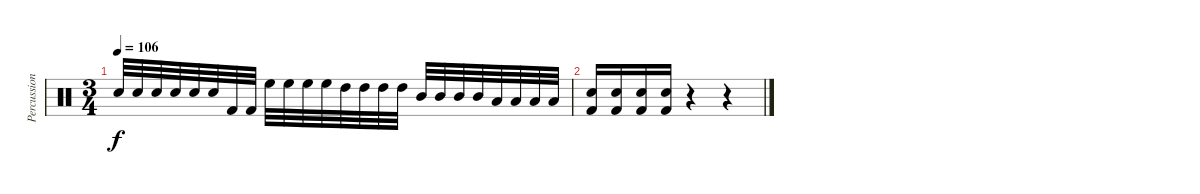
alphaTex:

\track ("Percussion" "Percussion") {instrument percussion}
\staff {score}
\articulation defaults
\ts (3 4)
\tempo 106
\clef neutral
\ks c "Electric Snare (hit)".32{dy f} "Electric Snare (hit)".32 "Electric Snare (hit)".32 "Electric Snare (hit)".32 "Electric Snare (hit)".32 "Electric Snare (hit)".32 "Kick (hit) 2".32 "Kick (hit) 2".32 "High Floor Tom (hit)".32 "High Floor Tom (hit)".32 "High Floor Tom (hit)".32 "High Floor Tom (hit)".32 "High Tom (hit)".32 "High Tom (hit)".32 "High Tom (hit)".32 "High Tom (hit)".32 "Mid Tom (hit)".32 "Mid Tom (hit)".32 "Mid Tom (hit)".32 "Mid Tom (hit)".32 "Low Tom (hit)".32 "Low Tom (hit)".32 "Low Tom (hit)".32 "Low Tom (hit)".32
|
("Electric Snare (hit)" "Kick (hit) 2").16 ("Electric Snare (hit)" "Kick (hit) 2").16 ("Electric Snare (hit)" "Kick (hit) 2").16 ("Electric Snare (hit)" "Kick (hit) 2").16 r.4 r.4
